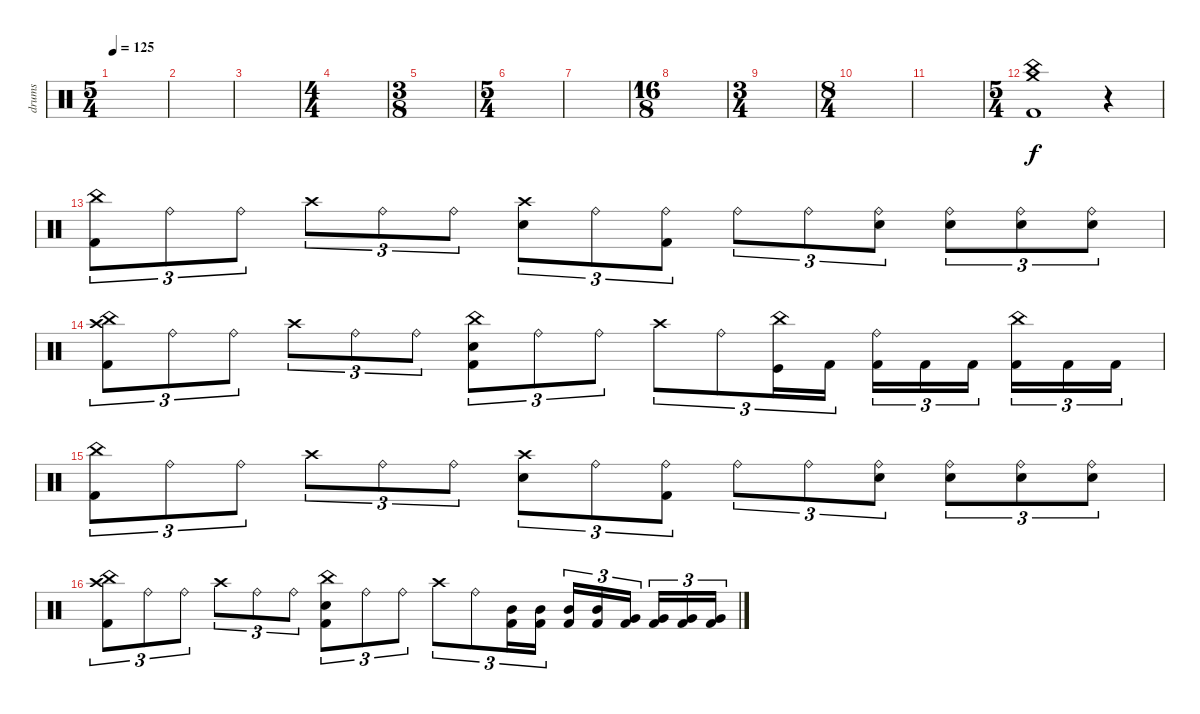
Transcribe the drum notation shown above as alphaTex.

\track (" drums" " drums") {mute instrument percussion}
\staff {score}
\articulation defaults
\ts (5 4)
\tempo 125
\clef neutral
\ks c
|
|
|
\ts (4 4)
|
\ts (3 8)
|
\ts (5 4)
|
|
\ts (16 8)
|
\ts (3 4)
|
\ts (8 4)
|
|
\ts (5 4)
("Kick (hit) 2" "Crash medium (hit)" "China (hit)").1 r.4 |
("Kick (hit) 2" "China (hit)").8{tu (3 2) dy f} "Ride (bell)".8{tu (3 2)} "Ride (bell)".8{tu (3 2)} "Crash high (hit)".8{tu (3 2)} "Ride (bell)".8{tu (3 2)} "Ride (bell)".8{tu (3 2)} ("Electric Snare (hit)" "Crash high (hit)").8{tu (3 2)} "Ride (bell)".8{tu (3 2)} ("Kick (hit) 2" "Ride (bell)").8{tu (3 2)} "Ride (bell)".8{tu (3 2)} "Ride (bell)".8{tu (3 2)} ("Electric Snare (hit)" "Ride (bell)").8{tu (3 2)} ("Electric Snare (hit)" "Ride (bell)").8{tu (3 2)} ("Electric Snare (hit)" "Ride (bell)").8{tu (3 2)} ("Electric Snare (hit)" "Ride (bell)").8{tu (3 2)} |
("Kick (hit) 2" "Crash high (hit)" "China (hit)").8{tu (3 2)} "Ride (bell)".8{tu (3 2)} "Ride (bell)".8{tu (3 2)} "Crash high (hit)".8{tu (3 2)} "Ride (bell)".8{tu (3 2)} "Ride (bell)".8{tu (3 2)} ("Kick (hit) 2" "Electric Snare (hit)" "China (hit)").8{tu (3 2)} "Ride (bell)".8{tu (3 2)} "Ride (bell)".8{tu (3 2)} "Crash high (hit)".8{tu (3 2)} "Ride (bell)".8{tu (3 2)} ("Kick (hit)" "China (hit)").16{tu (3 2)} "Kick (hit) 2".16{tu (3 2)} ("Kick (hit) 2" "Ride (bell)").16{tu (3 2)} "Kick (hit) 2".16{tu (3 2)} "Kick (hit) 2".16{tu (3 2) beam splitsecondary} ("Kick (hit) 2" "China (hit)").16{tu (3 2)} "Kick (hit) 2".16{tu (3 2)} "Kick (hit) 2".16{tu (3 2)} |
("Kick (hit) 2" "China (hit)").8{tu (3 2)} "Ride (bell)".8{tu (3 2)} "Ride (bell)".8{tu (3 2)} "Crash high (hit)".8{tu (3 2)} "Ride (bell)".8{tu (3 2)} "Ride (bell)".8{tu (3 2)} ("Electric Snare (hit)" "Crash high (hit)").8{tu (3 2)} "Ride (bell)".8{tu (3 2)} ("Kick (hit) 2" "Ride (bell)").8{tu (3 2)} "Ride (bell)".8{tu (3 2)} "Ride (bell)".8{tu (3 2)} ("Electric Snare (hit)" "Ride (bell)").8{tu (3 2)} ("Electric Snare (hit)" "Ride (bell)").8{tu (3 2)} ("Electric Snare (hit)" "Ride (bell)").8{tu (3 2)} ("Electric Snare (hit)" "Ride (bell)").8{tu (3 2)} |
("Kick (hit) 2" "Crash high (hit)" "China (hit)").8{tu (3 2)} "Ride (bell)".8{tu (3 2)} "Ride (bell)".8{tu (3 2)} "Crash high (hit)".8{tu (3 2)} "Ride (bell)".8{tu (3 2)} "Ride (bell)".8{tu (3 2)} ("Kick (hit) 2" "Electric Snare (hit)" "China (hit)").8{tu (3 2)} "Ride (bell)".8{tu (3 2)} "Ride (bell)".8{tu (3 2)} "Crash high (hit)".8{tu (3 2)} "Ride (bell)".8{tu (3 2)} ("Kick (hit) 2" "Mid Tom (hit)").16{tu (3 2)} ("Kick (hit) 2" "Mid Tom (hit)").16{tu (3 2)} ("Kick (hit) 2" "Mid Tom (hit)").16{tu (3 2)} ("Kick (hit) 2" "Mid Tom (hit)").16{tu (3 2)} ("Kick (hit) 2" "Very Low Tom (hit)").16{tu (3 2) beam splitsecondary} ("Kick (hit) 2" "Very Low Tom (hit)").16{tu (3 2)} ("Kick (hit) 2" "Very Low Tom (hit)").16{tu (3 2)} ("Kick (hit) 2" "Very Low Tom (hit)").16{tu (3 2)}
